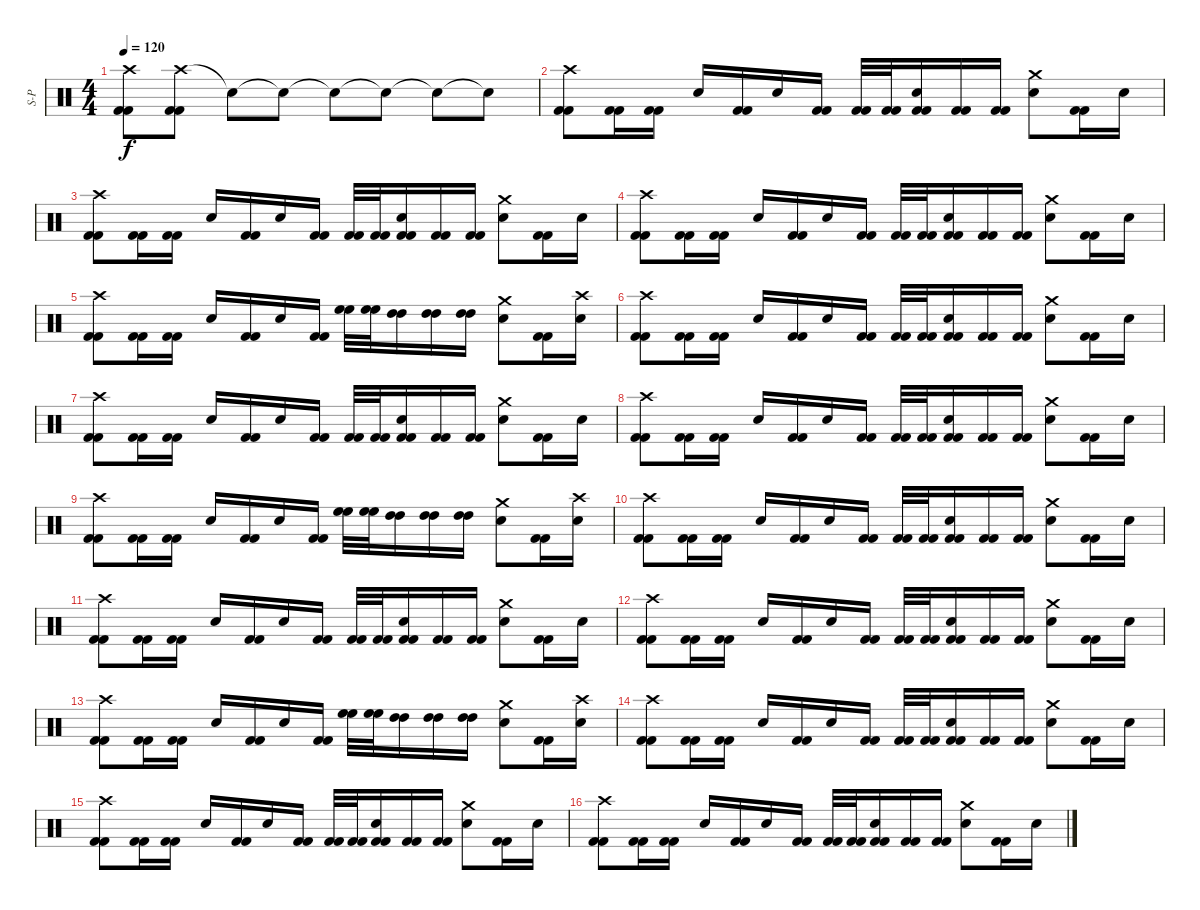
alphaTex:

\track ("S-P" "S-P") {instrument percussion}
\staff {score}
\articulation defaults
\ts (4 4)
\tempo 120
\clef neutral
\ks c
("Crash high (hit)" "Kick (hit) 2" "Kick (hit) 2").8{dy f} ("Crash high (hit)" "Kick (hit) 2" "Kick (hit) 2").8 "Snare (hit)"{t}.8 "Snare (hit)"{t}.8 "Snare (hit)"{t}.8 "Snare (hit)"{t}.8 "Snare (hit)"{t}.8 "Snare (hit)"{t}.8 |
("Crash high (hit)" "Kick (hit) 2" "Kick (hit) 2").8 ("Kick (hit) 2" "Kick (hit) 2").16 ("Kick (hit) 2" "Kick (hit) 2").16 "Electric Snare (hit)".16 ("Kick (hit) 2" "Kick (hit) 2").16 "Electric Snare (hit)".16 ("Kick (hit) 2" "Kick (hit) 2").16 ("Kick (hit) 2" "Kick (hit) 2").32 ("Kick (hit) 2" "Kick (hit) 2").32 ("Electric Snare (hit)" "Kick (hit) 2" "Kick (hit) 2").16 ("Kick (hit) 2" "Kick (hit) 2").16 ("Kick (hit) 2" "Kick (hit) 2").16 ("Crash medium (hit)" "Electric Snare (hit)").8 ("Kick (hit) 2" "Kick (hit) 2").16 "Electric Snare (hit)".16 |
("Crash high (hit)" "Kick (hit) 2" "Kick (hit) 2").8 ("Kick (hit) 2" "Kick (hit) 2").16 ("Kick (hit) 2" "Kick (hit) 2").16 "Electric Snare (hit)".16 ("Kick (hit) 2" "Kick (hit) 2").16 "Electric Snare (hit)".16 ("Kick (hit) 2" "Kick (hit) 2").16 ("Kick (hit) 2" "Kick (hit) 2").32 ("Kick (hit) 2" "Kick (hit) 2").32 ("Electric Snare (hit)" "Kick (hit) 2" "Kick (hit) 2").16 ("Kick (hit) 2" "Kick (hit) 2").16 ("Kick (hit) 2" "Kick (hit) 2").16 ("Crash medium (hit)" "Electric Snare (hit)").8 ("Kick (hit) 2" "Kick (hit) 2").16 "Electric Snare (hit)".16 |
("Crash high (hit)" "Kick (hit) 2" "Kick (hit) 2").8 ("Kick (hit) 2" "Kick (hit) 2").16 ("Kick (hit) 2" "Kick (hit) 2").16 "Electric Snare (hit)".16 ("Kick (hit) 2" "Kick (hit) 2").16 "Electric Snare (hit)".16 ("Kick (hit) 2" "Kick (hit) 2").16 ("Kick (hit) 2" "Kick (hit) 2").32 ("Kick (hit) 2" "Kick (hit) 2").32 ("Electric Snare (hit)" "Kick (hit) 2" "Kick (hit) 2").16 ("Kick (hit) 2" "Kick (hit) 2").16 ("Kick (hit) 2" "Kick (hit) 2").16 ("Crash medium (hit)" "Electric Snare (hit)").8 ("Kick (hit) 2" "Kick (hit) 2").16 "Electric Snare (hit)".16 |
("Crash high (hit)" "Kick (hit) 2" "Kick (hit) 2").8 ("Kick (hit) 2" "Kick (hit) 2").16 ("Kick (hit) 2" "Kick (hit) 2").16 "Electric Snare (hit)".16 ("Kick (hit) 2" "Kick (hit) 2").16 "Electric Snare (hit)".16 ("Kick (hit) 2" "Kick (hit) 2").16 ("High Floor Tom (hit)" "High Floor Tom (hit)").32 ("High Floor Tom (hit)" "High Floor Tom (hit)").32 ("High Tom (hit)" "High Tom (hit)").16 ("High Tom (hit)" "High Tom (hit)").16 ("High Tom (hit)" "High Tom (hit)").16 ("Crash medium (hit)" "Electric Snare (hit)").8 ("Kick (hit) 2" "Kick (hit) 2").16 ("Crash high (hit)" "Electric Snare (hit)").16 |
("Crash high (hit)" "Kick (hit) 2" "Kick (hit) 2").8 ("Kick (hit) 2" "Kick (hit) 2").16 ("Kick (hit) 2" "Kick (hit) 2").16 "Electric Snare (hit)".16 ("Kick (hit) 2" "Kick (hit) 2").16 "Electric Snare (hit)".16 ("Kick (hit) 2" "Kick (hit) 2").16 ("Kick (hit) 2" "Kick (hit) 2").32 ("Kick (hit) 2" "Kick (hit) 2").32 ("Electric Snare (hit)" "Kick (hit) 2" "Kick (hit) 2").16 ("Kick (hit) 2" "Kick (hit) 2").16 ("Kick (hit) 2" "Kick (hit) 2").16 ("Crash medium (hit)" "Electric Snare (hit)").8 ("Kick (hit) 2" "Kick (hit) 2").16 "Electric Snare (hit)".16 |
("Crash high (hit)" "Kick (hit) 2" "Kick (hit) 2").8 ("Kick (hit) 2" "Kick (hit) 2").16 ("Kick (hit) 2" "Kick (hit) 2").16 "Electric Snare (hit)".16 ("Kick (hit) 2" "Kick (hit) 2").16 "Electric Snare (hit)".16 ("Kick (hit) 2" "Kick (hit) 2").16 ("Kick (hit) 2" "Kick (hit) 2").32 ("Kick (hit) 2" "Kick (hit) 2").32 ("Electric Snare (hit)" "Kick (hit) 2" "Kick (hit) 2").16 ("Kick (hit) 2" "Kick (hit) 2").16 ("Kick (hit) 2" "Kick (hit) 2").16 ("Crash medium (hit)" "Electric Snare (hit)").8 ("Kick (hit) 2" "Kick (hit) 2").16 "Electric Snare (hit)".16 |
("Crash high (hit)" "Kick (hit) 2" "Kick (hit) 2").8 ("Kick (hit) 2" "Kick (hit) 2").16 ("Kick (hit) 2" "Kick (hit) 2").16 "Electric Snare (hit)".16 ("Kick (hit) 2" "Kick (hit) 2").16 "Electric Snare (hit)".16 ("Kick (hit) 2" "Kick (hit) 2").16 ("Kick (hit) 2" "Kick (hit) 2").32 ("Kick (hit) 2" "Kick (hit) 2").32 ("Electric Snare (hit)" "Kick (hit) 2" "Kick (hit) 2").16 ("Kick (hit) 2" "Kick (hit) 2").16 ("Kick (hit) 2" "Kick (hit) 2").16 ("Crash medium (hit)" "Electric Snare (hit)").8 ("Kick (hit) 2" "Kick (hit) 2").16 "Electric Snare (hit)".16 |
("Crash high (hit)" "Kick (hit) 2" "Kick (hit) 2").8 ("Kick (hit) 2" "Kick (hit) 2").16 ("Kick (hit) 2" "Kick (hit) 2").16 "Electric Snare (hit)".16 ("Kick (hit) 2" "Kick (hit) 2").16 "Electric Snare (hit)".16 ("Kick (hit) 2" "Kick (hit) 2").16 ("High Floor Tom (hit)" "High Floor Tom (hit)").32 ("High Floor Tom (hit)" "High Floor Tom (hit)").32 ("High Tom (hit)" "High Tom (hit)").16 ("High Tom (hit)" "High Tom (hit)").16 ("High Tom (hit)" "High Tom (hit)").16 ("Crash medium (hit)" "Electric Snare (hit)").8 ("Kick (hit) 2" "Kick (hit) 2").16 ("Crash high (hit)" "Electric Snare (hit)").16 |
("Crash high (hit)" "Kick (hit) 2" "Kick (hit) 2").8 ("Kick (hit) 2" "Kick (hit) 2").16 ("Kick (hit) 2" "Kick (hit) 2").16 "Electric Snare (hit)".16 ("Kick (hit) 2" "Kick (hit) 2").16 "Electric Snare (hit)".16 ("Kick (hit) 2" "Kick (hit) 2").16 ("Kick (hit) 2" "Kick (hit) 2").32 ("Kick (hit) 2" "Kick (hit) 2").32 ("Electric Snare (hit)" "Kick (hit) 2" "Kick (hit) 2").16 ("Kick (hit) 2" "Kick (hit) 2").16 ("Kick (hit) 2" "Kick (hit) 2").16 ("Crash medium (hit)" "Electric Snare (hit)").8 ("Kick (hit) 2" "Kick (hit) 2").16 "Electric Snare (hit)".16 |
("Crash high (hit)" "Kick (hit) 2" "Kick (hit) 2").8 ("Kick (hit) 2" "Kick (hit) 2").16 ("Kick (hit) 2" "Kick (hit) 2").16 "Electric Snare (hit)".16 ("Kick (hit) 2" "Kick (hit) 2").16 "Electric Snare (hit)".16 ("Kick (hit) 2" "Kick (hit) 2").16 ("Kick (hit) 2" "Kick (hit) 2").32 ("Kick (hit) 2" "Kick (hit) 2").32 ("Electric Snare (hit)" "Kick (hit) 2" "Kick (hit) 2").16 ("Kick (hit) 2" "Kick (hit) 2").16 ("Kick (hit) 2" "Kick (hit) 2").16 ("Crash medium (hit)" "Electric Snare (hit)").8 ("Kick (hit) 2" "Kick (hit) 2").16 "Electric Snare (hit)".16 |
("Crash high (hit)" "Kick (hit) 2" "Kick (hit) 2").8 ("Kick (hit) 2" "Kick (hit) 2").16 ("Kick (hit) 2" "Kick (hit) 2").16 "Electric Snare (hit)".16 ("Kick (hit) 2" "Kick (hit) 2").16 "Electric Snare (hit)".16 ("Kick (hit) 2" "Kick (hit) 2").16 ("Kick (hit) 2" "Kick (hit) 2").32 ("Kick (hit) 2" "Kick (hit) 2").32 ("Electric Snare (hit)" "Kick (hit) 2" "Kick (hit) 2").16 ("Kick (hit) 2" "Kick (hit) 2").16 ("Kick (hit) 2" "Kick (hit) 2").16 ("Crash medium (hit)" "Electric Snare (hit)").8 ("Kick (hit) 2" "Kick (hit) 2").16 "Electric Snare (hit)".16 |
("Crash high (hit)" "Kick (hit) 2" "Kick (hit) 2").8 ("Kick (hit) 2" "Kick (hit) 2").16 ("Kick (hit) 2" "Kick (hit) 2").16 "Electric Snare (hit)".16 ("Kick (hit) 2" "Kick (hit) 2").16 "Electric Snare (hit)".16 ("Kick (hit) 2" "Kick (hit) 2").16 ("High Floor Tom (hit)" "High Floor Tom (hit)").32 ("High Floor Tom (hit)" "High Floor Tom (hit)").32 ("High Tom (hit)" "High Tom (hit)").16 ("High Tom (hit)" "High Tom (hit)").16 ("High Tom (hit)" "High Tom (hit)").16 ("Crash medium (hit)" "Electric Snare (hit)").8 ("Kick (hit) 2" "Kick (hit) 2").16 ("Crash high (hit)" "Electric Snare (hit)").16 |
("Crash high (hit)" "Kick (hit) 2" "Kick (hit) 2").8 ("Kick (hit) 2" "Kick (hit) 2").16 ("Kick (hit) 2" "Kick (hit) 2").16 "Electric Snare (hit)".16 ("Kick (hit) 2" "Kick (hit) 2").16 "Electric Snare (hit)".16 ("Kick (hit) 2" "Kick (hit) 2").16 ("Kick (hit) 2" "Kick (hit) 2").32 ("Kick (hit) 2" "Kick (hit) 2").32 ("Electric Snare (hit)" "Kick (hit) 2" "Kick (hit) 2").16 ("Kick (hit) 2" "Kick (hit) 2").16 ("Kick (hit) 2" "Kick (hit) 2").16 ("Crash medium (hit)" "Electric Snare (hit)").8 ("Kick (hit) 2" "Kick (hit) 2").16 "Electric Snare (hit)".16 |
("Crash high (hit)" "Kick (hit) 2" "Kick (hit) 2").8 ("Kick (hit) 2" "Kick (hit) 2").16 ("Kick (hit) 2" "Kick (hit) 2").16 "Electric Snare (hit)".16 ("Kick (hit) 2" "Kick (hit) 2").16 "Electric Snare (hit)".16 ("Kick (hit) 2" "Kick (hit) 2").16 ("Kick (hit) 2" "Kick (hit) 2").32 ("Kick (hit) 2" "Kick (hit) 2").32 ("Electric Snare (hit)" "Kick (hit) 2" "Kick (hit) 2").16 ("Kick (hit) 2" "Kick (hit) 2").16 ("Kick (hit) 2" "Kick (hit) 2").16 ("Crash medium (hit)" "Electric Snare (hit)").8 ("Kick (hit) 2" "Kick (hit) 2").16 "Electric Snare (hit)".16 |
("Crash high (hit)" "Kick (hit) 2" "Kick (hit) 2").8 ("Kick (hit) 2" "Kick (hit) 2").16 ("Kick (hit) 2" "Kick (hit) 2").16 "Electric Snare (hit)".16 ("Kick (hit) 2" "Kick (hit) 2").16 "Electric Snare (hit)".16 ("Kick (hit) 2" "Kick (hit) 2").16 ("Kick (hit) 2" "Kick (hit) 2").32 ("Kick (hit) 2" "Kick (hit) 2").32 ("Electric Snare (hit)" "Kick (hit) 2" "Kick (hit) 2").16 ("Kick (hit) 2" "Kick (hit) 2").16 ("Kick (hit) 2" "Kick (hit) 2").16 ("Crash medium (hit)" "Electric Snare (hit)").8 ("Kick (hit) 2" "Kick (hit) 2").16 "Electric Snare (hit)".16
